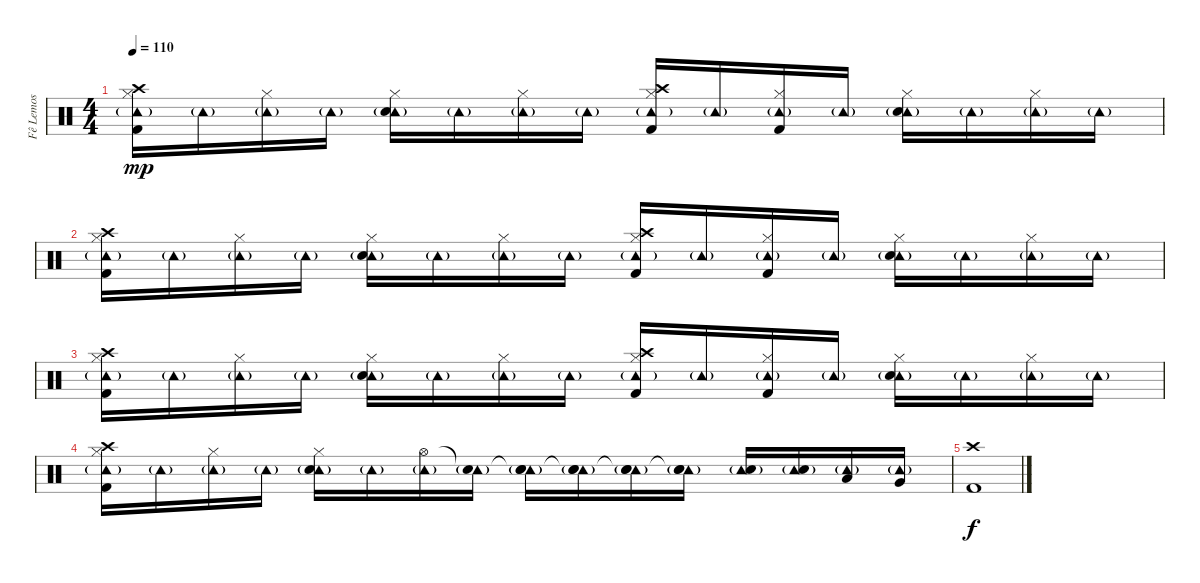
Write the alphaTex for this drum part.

\track ("Fê Lemos" "Fê Lemos") {instrument percussion}
\staff {score}
\articulation defaults
\ts (4 4)
\tempo 110
\clef neutral
\ks c
("Tambourine (hit)"{g} "Crash high (hit)" "Hi-Hat (closed)" "Kick (hit) 2").16{dy mp} "Tambourine (hit)"{g}.16 ("Tambourine (hit)"{g} "Hi-Hat (closed)").16 "Tambourine (hit)"{g}.16 ("Tambourine (hit)"{g} "Hi-Hat (closed)" "Electric Snare (hit)").16 "Tambourine (hit)"{g}.16 ("Tambourine (hit)"{g} "Hi-Hat (closed)").16 "Tambourine (hit)"{g}.16 ("Tambourine (hit)"{g} "Crash high (hit)" "Hi-Hat (closed)" "Kick (hit) 2").16 "Tambourine (hit)"{g}.16 ("Tambourine (hit)"{g} "Hi-Hat (closed)" "Kick (hit) 2").16 "Tambourine (hit)"{g}.16 ("Tambourine (hit)"{g} "Hi-Hat (closed)" "Electric Snare (hit)").16 "Tambourine (hit)"{g}.16 ("Tambourine (hit)"{g} "Hi-Hat (closed)").16 "Tambourine (hit)"{g}.16 |
("Tambourine (hit)"{g} "Crash high (hit)" "Hi-Hat (closed)" "Kick (hit) 2").16 "Tambourine (hit)"{g}.16 ("Tambourine (hit)"{g} "Hi-Hat (closed)").16 "Tambourine (hit)"{g}.16 ("Tambourine (hit)"{g} "Hi-Hat (closed)" "Electric Snare (hit)").16 "Tambourine (hit)"{g}.16 ("Tambourine (hit)"{g} "Hi-Hat (closed)").16 "Tambourine (hit)"{g}.16 ("Tambourine (hit)"{g} "Crash high (hit)" "Hi-Hat (closed)" "Kick (hit) 2").16 "Tambourine (hit)"{g}.16 ("Tambourine (hit)"{g} "Hi-Hat (closed)" "Kick (hit) 2").16 "Tambourine (hit)"{g}.16 ("Tambourine (hit)"{g} "Hi-Hat (closed)" "Electric Snare (hit)").16 "Tambourine (hit)"{g}.16 ("Tambourine (hit)"{g} "Hi-Hat (closed)").16 "Tambourine (hit)"{g}.16 |
("Tambourine (hit)"{g} "Crash high (hit)" "Hi-Hat (closed)" "Kick (hit) 2").16 "Tambourine (hit)"{g}.16 ("Tambourine (hit)"{g} "Hi-Hat (closed)").16 "Tambourine (hit)"{g}.16 ("Tambourine (hit)"{g} "Hi-Hat (closed)" "Electric Snare (hit)").16 "Tambourine (hit)"{g}.16 ("Tambourine (hit)"{g} "Hi-Hat (closed)").16 "Tambourine (hit)"{g}.16 ("Tambourine (hit)"{g} "Crash high (hit)" "Hi-Hat (closed)" "Kick (hit) 2").16 "Tambourine (hit)"{g}.16 ("Tambourine (hit)"{g} "Hi-Hat (closed)" "Kick (hit) 2").16 "Tambourine (hit)"{g}.16 ("Tambourine (hit)"{g} "Hi-Hat (closed)" "Electric Snare (hit)").16 "Tambourine (hit)"{g}.16 ("Tambourine (hit)"{g} "Hi-Hat (closed)").16 "Tambourine (hit)"{g}.16 |
("Tambourine (hit)"{g} "Crash high (hit)" "Hi-Hat (closed)" "Kick (hit) 2").16 "Tambourine (hit)"{g}.16 ("Tambourine (hit)"{g} "Hi-Hat (closed)").16 "Tambourine (hit)"{g}.16 ("Tambourine (hit)"{g} "Hi-Hat (closed)" "Electric Snare (hit)").16 "Tambourine (hit)"{g}.16 ("Tambourine (hit)"{g} "Hi-Hat (open)").16 ("Tambourine (hit)"{g} "Snare (hit)"{t}).16 ("Tambourine (hit)"{g} "Snare (hit)"{t} "Electric Snare (hit)").16 ("Tambourine (hit)"{g} "Snare (hit)"{t} "Electric Snare (hit)").16 ("Tambourine (hit)"{g} "Snare (hit)"{t} "Electric Snare (hit)").16 ("Tambourine (hit)"{g} "Snare (hit)"{t} "Electric Snare (hit)").16 ("Tambourine (hit)"{g} "Electric Snare (hit)").16 ("Tambourine (hit)"{g} "Electric Snare (hit)").16 ("Tambourine (hit)"{g} "Low Tom (hit)").16 ("Tambourine (hit)"{g} "Very Low Tom (hit)").16 |
("Crash high (hit)" "Kick (hit) 2").1{dy f}
